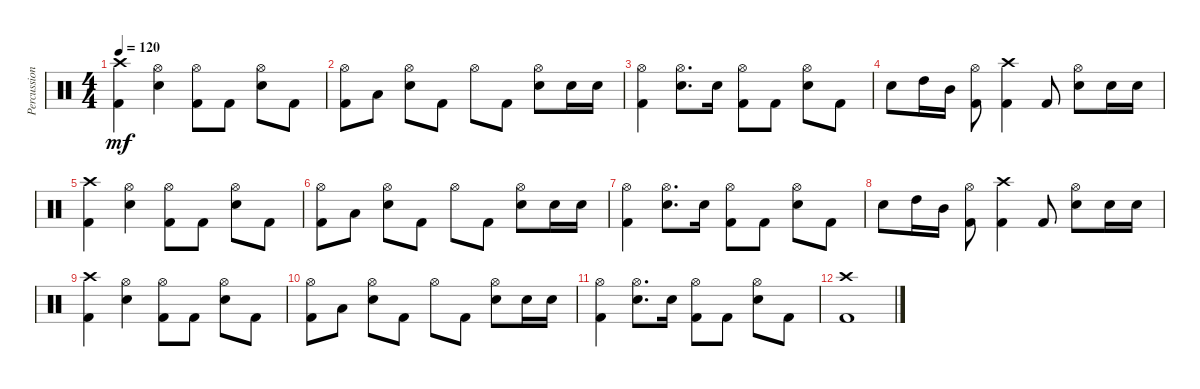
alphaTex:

\track ("Percussion" "Percussion") {instrument percussion}
\staff {score}
\articulation defaults
\ts (4 4)
\tempo 120
\clef neutral
\ks c
("Crash high (hit)" "Kick (hit) 2").4{dy mf} ("Hi-Hat (open)" "Snare (hit) 2").4 ("Hi-Hat (open)" "Kick (hit) 2").8 "Kick (hit) 2".8 ("Hi-Hat (open)" "Snare (hit) 2").8 "Kick (hit) 2".8 |
("Hi-Hat (open)" "Kick (hit) 2").8 "Low Tom (hit)".8 ("Hi-Hat (open)" "Snare (hit) 2").8 "Kick (hit) 2".8 "Hi-Hat (open)".8 "Kick (hit) 2".8 ("Hi-Hat (open)" "Snare (hit) 2").8 "Snare (hit) 2".16 "Snare (hit) 2".16 |
("Hi-Hat (open)" "Kick (hit) 2").4 ("Hi-Hat (open)" "Snare (hit) 2").8{d} "Snare (hit) 2".16 ("Hi-Hat (open)" "Kick (hit) 2").8 "Kick (hit) 2".8 ("Hi-Hat (open)" "Snare (hit) 2").8 "Kick (hit) 2".8 |
"Snare (hit) 2".8 "High Tom (hit)".16 "Mid Tom (hit)".16 ("Hi-Hat (open)" "Kick (hit) 2").8 ("Crash high (hit)" "Kick (hit) 2").4 "Kick (hit) 2".8 ("Hi-Hat (open)" "Snare (hit) 2").8 "Snare (hit) 2".16 "Snare (hit) 2".16 |
("Crash high (hit)" "Kick (hit) 2").4 ("Hi-Hat (open)" "Snare (hit) 2").4 ("Hi-Hat (open)" "Kick (hit) 2").8 "Kick (hit) 2".8 ("Hi-Hat (open)" "Snare (hit) 2").8 "Kick (hit) 2".8 |
("Hi-Hat (open)" "Kick (hit) 2").8 "Low Tom (hit)".8 ("Hi-Hat (open)" "Snare (hit) 2").8 "Kick (hit) 2".8 "Hi-Hat (open)".8 "Kick (hit) 2".8 ("Hi-Hat (open)" "Snare (hit) 2").8 "Snare (hit) 2".16 "Snare (hit) 2".16 |
("Hi-Hat (open)" "Kick (hit) 2").4 ("Hi-Hat (open)" "Snare (hit) 2").8{d} "Snare (hit) 2".16 ("Hi-Hat (open)" "Kick (hit) 2").8 "Kick (hit) 2".8 ("Hi-Hat (open)" "Snare (hit) 2").8 "Kick (hit) 2".8 |
"Snare (hit) 2".8 "High Tom (hit)".16 "Mid Tom (hit)".16 ("Hi-Hat (open)" "Kick (hit) 2").8 ("Crash high (hit)" "Kick (hit) 2").4 "Kick (hit) 2".8 ("Hi-Hat (open)" "Snare (hit) 2").8 "Snare (hit) 2".16 "Snare (hit) 2".16 |
("Crash high (hit)" "Kick (hit) 2").4 ("Hi-Hat (open)" "Snare (hit) 2").4 ("Hi-Hat (open)" "Kick (hit) 2").8 "Kick (hit) 2".8 ("Hi-Hat (open)" "Snare (hit) 2").8 "Kick (hit) 2".8 |
("Hi-Hat (open)" "Kick (hit) 2").8 "Low Tom (hit)".8 ("Hi-Hat (open)" "Snare (hit) 2").8 "Kick (hit) 2".8 "Hi-Hat (open)".8 "Kick (hit) 2".8 ("Hi-Hat (open)" "Snare (hit) 2").8 "Snare (hit) 2".16 "Snare (hit) 2".16 |
("Hi-Hat (open)" "Kick (hit) 2").4 ("Hi-Hat (open)" "Snare (hit) 2").8{d} "Snare (hit) 2".16 ("Hi-Hat (open)" "Kick (hit) 2").8 "Kick (hit) 2".8 ("Hi-Hat (open)" "Snare (hit) 2").8 "Kick (hit) 2".8 |
("Crash high (hit)" "Kick (hit) 2").1
